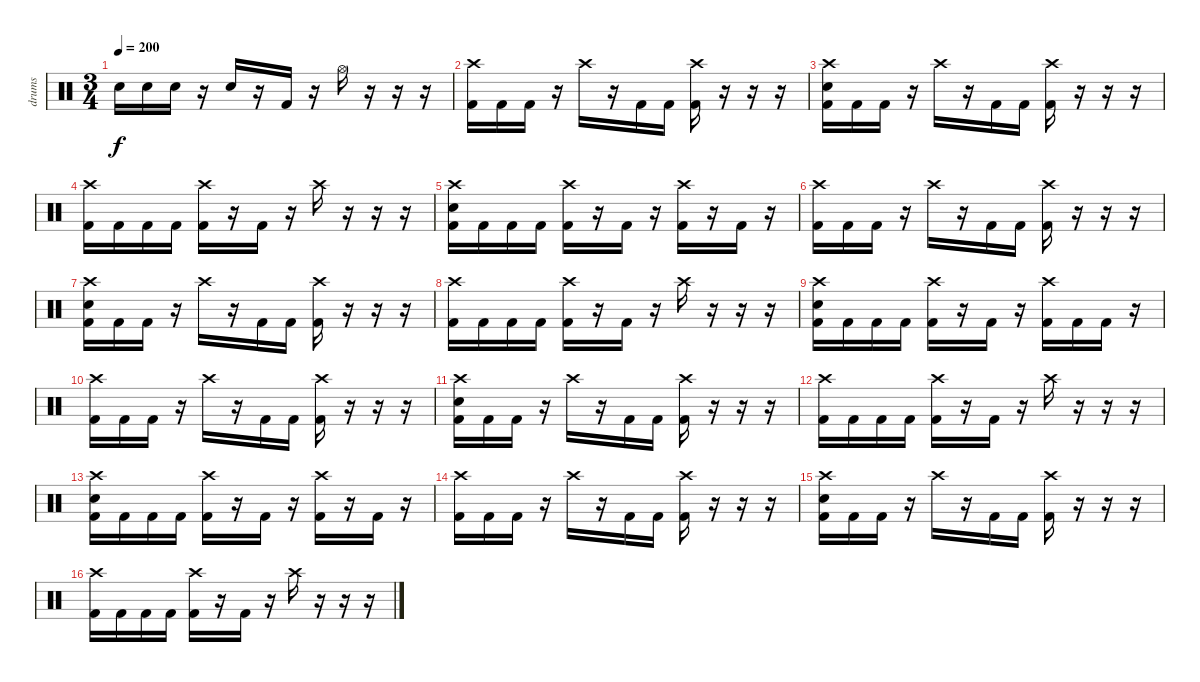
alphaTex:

\track ("drums" "drums") {instrument percussion}
\staff {score}
\articulation defaults
\ts (3 4)
\tempo 200
\clef neutral
\ks c "Electric Snare (hit)".16{dy f} "Electric Snare (hit)".16 "Electric Snare (hit)".16
r.16 "Electric Snare (hit)".16 r.16 "Kick (hit) 2".16 r.16 "Hi-Hat (open)".16 r.16 r.16 r.16 |
("Kick (hit) 2" "Crash high (hit)").16 "Kick (hit) 2".16 "Kick (hit) 2".16 r.16 "Crash high (hit)".16 r.16 "Kick (hit) 2".16 "Kick (hit) 2".16 ("Kick (hit) 2" "Crash high (hit)").16 r.16 r.16 r.16 |
("Kick (hit) 2" "Crash high (hit)" "Electric Snare (hit)").16 "Kick (hit) 2".16 "Kick (hit) 2".16 r.16 "Crash high (hit)".16 r.16 "Kick (hit) 2".16 "Kick (hit) 2".16 ("Kick (hit) 2" "Crash high (hit)").16 r.16 r.16 r.16 |
("Kick (hit) 2" "Crash high (hit)").16 "Kick (hit) 2".16 "Kick (hit) 2".16 "Kick (hit) 2".16 ("Kick (hit) 2" "Crash high (hit)").16 r.16 "Kick (hit) 2".16 r.16 "Crash high (hit)".16 r.16 r.16 r.16 |
("Crash high (hit)" "Electric Snare (hit)" "Kick (hit) 2").16 "Kick (hit) 2".16 "Kick (hit) 2".16 "Kick (hit) 2".16 ("Crash high (hit)" "Kick (hit) 2").16 r.16 "Kick (hit) 2".16 r.16 ("Crash high (hit)" "Kick (hit) 2").16 r.16 "Kick (hit) 2".16 r.16 |
("Kick (hit) 2" "Crash high (hit)").16 "Kick (hit) 2".16 "Kick (hit) 2".16 r.16 "Crash high (hit)".16 r.16 "Kick (hit) 2".16 "Kick (hit) 2".16 ("Kick (hit) 2" "Crash high (hit)").16 r.16 r.16 r.16 |
("Kick (hit) 2" "Crash high (hit)" "Electric Snare (hit)").16 "Kick (hit) 2".16 "Kick (hit) 2".16 r.16 "Crash high (hit)".16 r.16 "Kick (hit) 2".16 "Kick (hit) 2".16 ("Kick (hit) 2" "Crash high (hit)").16 r.16 r.16 r.16 |
("Kick (hit) 2" "Crash high (hit)").16 "Kick (hit) 2".16 "Kick (hit) 2".16 "Kick (hit) 2".16 ("Kick (hit) 2" "Crash high (hit)").16 r.16 "Kick (hit) 2".16 r.16 "Crash high (hit)".16 r.16 r.16 r.16 |
("Crash high (hit)" "Electric Snare (hit)" "Kick (hit) 2").16 "Kick (hit) 2".16 "Kick (hit) 2".16 "Kick (hit) 2".16 ("Crash high (hit)" "Kick (hit) 2").16 r.16 "Kick (hit) 2".16 r.16 ("Crash high (hit)" "Kick (hit) 2").16 "Kick (hit) 2".16 "Kick (hit) 2".16 r.16 |
("Kick (hit) 2" "Crash high (hit)").16 "Kick (hit) 2".16 "Kick (hit) 2".16 r.16 "Crash high (hit)".16 r.16 "Kick (hit) 2".16 "Kick (hit) 2".16 ("Kick (hit) 2" "Crash high (hit)").16 r.16 r.16 r.16 |
("Kick (hit) 2" "Crash high (hit)" "Electric Snare (hit)").16 "Kick (hit) 2".16 "Kick (hit) 2".16 r.16 "Crash high (hit)".16 r.16 "Kick (hit) 2".16 "Kick (hit) 2".16 ("Kick (hit) 2" "Crash high (hit)").16 r.16 r.16 r.16 |
("Kick (hit) 2" "Crash high (hit)").16 "Kick (hit) 2".16 "Kick (hit) 2".16 "Kick (hit) 2".16 ("Kick (hit) 2" "Crash high (hit)").16 r.16 "Kick (hit) 2".16 r.16 "Crash high (hit)".16 r.16 r.16 r.16 |
("Crash high (hit)" "Electric Snare (hit)" "Kick (hit) 2").16 "Kick (hit) 2".16 "Kick (hit) 2".16 "Kick (hit) 2".16 ("Crash high (hit)" "Kick (hit) 2").16 r.16 "Kick (hit) 2".16 r.16 ("Crash high (hit)" "Kick (hit) 2").16 r.16 "Kick (hit) 2".16 r.16 |
("Kick (hit) 2" "Crash high (hit)").16 "Kick (hit) 2".16 "Kick (hit) 2".16 r.16 "Crash high (hit)".16 r.16 "Kick (hit) 2".16 "Kick (hit) 2".16 ("Kick (hit) 2" "Crash high (hit)").16 r.16 r.16 r.16 |
("Kick (hit) 2" "Crash high (hit)" "Electric Snare (hit)").16 "Kick (hit) 2".16 "Kick (hit) 2".16 r.16 "Crash high (hit)".16 r.16 "Kick (hit) 2".16 "Kick (hit) 2".16 ("Kick (hit) 2" "Crash high (hit)").16 r.16 r.16 r.16 |
("Kick (hit) 2" "Crash high (hit)").16 "Kick (hit) 2".16 "Kick (hit) 2".16 "Kick (hit) 2".16 ("Kick (hit) 2" "Crash high (hit)").16 r.16 "Kick (hit) 2".16 r.16 "Crash high (hit)".16 r.16 r.16 r.16
